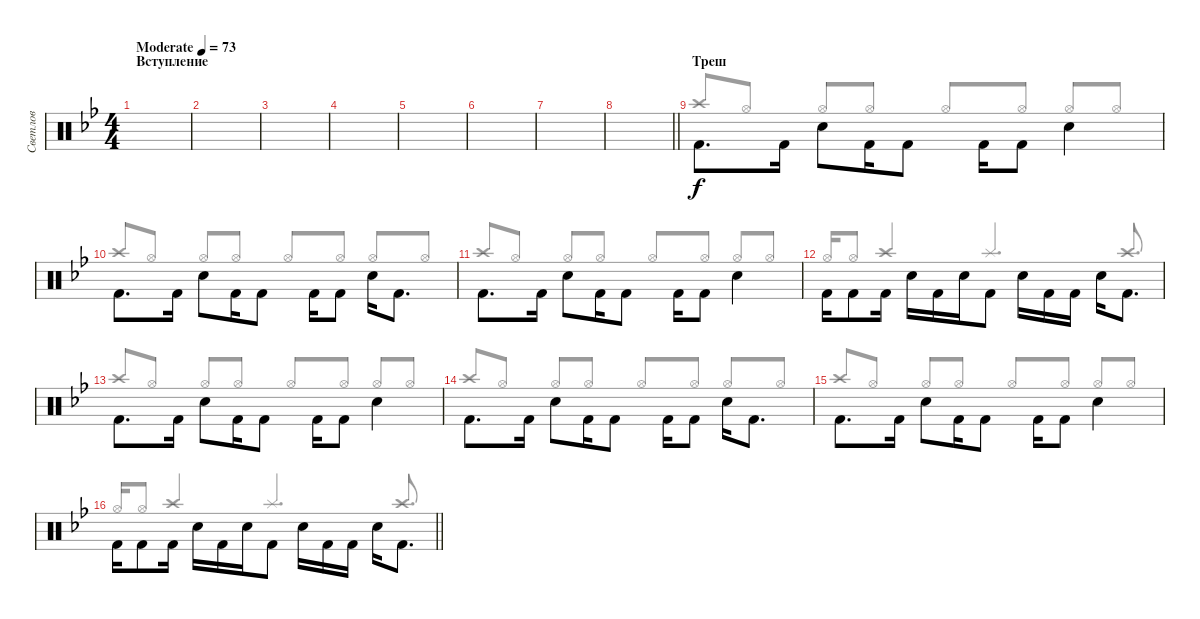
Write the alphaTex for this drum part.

\track ("Светлов" "Светлов") {instrument percussion}
\staff {score}
\articulation defaults
\voice
\ts (4 4)
\section ("" "Вступление")
\tempo (73 "Moderate")
\clef neutral
\ks gminor
|
|
|
|
|
|
|
\barLineRight lightlight
|
\section ("" "Треш")
"Kick (hit) 2".8{d beam Down} "Kick (hit) 2".16{beam Down} "Electric Snare (hit)".8{beam Down} "Kick (hit) 2".16{beam Down} "Kick (hit) 2".8{beam Down} "Kick (hit) 2".16{beam Down} "Kick (hit) 2".8{beam Down} "Electric Snare (hit)".4{beam Down} |
"Kick (hit) 2".8{d beam Down} "Kick (hit) 2".16{beam Down} "Electric Snare (hit)".8{beam Down} "Kick (hit) 2".16{beam Down} "Kick (hit) 2".8{beam Down} "Kick (hit) 2".16{beam Down} "Kick (hit) 2".8{beam Down} "Electric Snare (hit)".16{beam Down} "Kick (hit) 2".8{d beam Down} |
"Kick (hit) 2".8{d beam Down} "Kick (hit) 2".16{beam Down} "Electric Snare (hit)".8{beam Down} "Kick (hit) 2".16{beam Down} "Kick (hit) 2".8{beam Down} "Kick (hit) 2".16{beam Down} "Kick (hit) 2".8{beam Down} "Electric Snare (hit)".4{beam Down} |
"Kick (hit) 2".16{beam Down} "Kick (hit) 2".8{beam Down} "Kick (hit) 2".16{beam Down} "Electric Snare (hit)".16{beam Down} "Kick (hit) 2".16{beam Down} "Electric Snare (hit)".16{beam Down} "Kick (hit) 2".8{beam Down} "Electric Snare (hit)".16{beam Down} "Kick (hit) 2".16{beam Down} "Kick (hit) 2".16{beam Down} "Electric Snare (hit)".16{beam Down} "Kick (hit) 2".8{d beam Down} |
"Kick (hit) 2".8{d beam Down} "Kick (hit) 2".16{beam Down} "Electric Snare (hit)".8{beam Down} "Kick (hit) 2".16{beam Down} "Kick (hit) 2".8{beam Down} "Kick (hit) 2".16{beam Down} "Kick (hit) 2".8{beam Down} "Electric Snare (hit)".4{beam Down} |
"Kick (hit) 2".8{d beam Down} "Kick (hit) 2".16{beam Down} "Electric Snare (hit)".8{beam Down} "Kick (hit) 2".16{beam Down} "Kick (hit) 2".8{beam Down} "Kick (hit) 2".16{beam Down} "Kick (hit) 2".8{beam Down} "Electric Snare (hit)".16{beam Down} "Kick (hit) 2".8{d beam Down} |
"Kick (hit) 2".8{d beam Down} "Kick (hit) 2".16{beam Down} "Electric Snare (hit)".8{beam Down} "Kick (hit) 2".16{beam Down} "Kick (hit) 2".8{beam Down} "Kick (hit) 2".16{beam Down} "Kick (hit) 2".8{beam Down} "Electric Snare (hit)".4{beam Down} |
\barLineRight lightlight "Kick (hit) 2".16{beam Down} "Kick (hit) 2".8{beam Down} "Kick (hit) 2".16{beam Down} "Electric Snare (hit)".16{beam Down} "Kick (hit) 2".16{beam Down} "Electric Snare (hit)".16{beam Down} "Kick (hit) 2".8{beam Down} "Electric Snare (hit)".16{beam Down} "Kick (hit) 2".16{beam Down} "Kick (hit) 2".16{beam Down} "Electric Snare (hit)".16{beam Down} "Kick (hit) 2".8{d beam Down}
\voice
\clef neutral
\ottava regular
\simile none
\ks gminor
|
|
|
|
|
|
|
\barLineRight lightlight
|
"Crash high (hit)".8{beam Up} "Hi-Hat (open)".8{beam Up} "Hi-Hat (open)".8{beam Up} "Hi-Hat (open)".8{beam Up} "Hi-Hat (open)".8{beam Up} "Hi-Hat (open)".8{beam Up} "Hi-Hat (open)".8{beam Up} "Hi-Hat (open)".8{beam Up} |
"Crash high (hit)".8{beam Up} "Hi-Hat (open)".8{beam Up} "Hi-Hat (open)".8{beam Up} "Hi-Hat (open)".8{beam Up} "Hi-Hat (open)".8{beam Up} "Hi-Hat (open)".8{beam Up} "Hi-Hat (open)".8{beam Up} "Hi-Hat (open)".8{beam Up} |
"Crash high (hit)".8{beam Up} "Hi-Hat (open)".8{beam Up} "Hi-Hat (open)".8{beam Up} "Hi-Hat (open)".8{beam Up} "Hi-Hat (open)".8{beam Up} "Hi-Hat (open)".8{beam Up} "Hi-Hat (open)".8{beam Up} "Hi-Hat (open)".8{beam Up} |
"Hi-Hat (open)".16{beam Up} "Hi-Hat (open)".8{beam Up} "Crash high (hit)".4{beam Up} "Splash (hit)".4{d beam Up} "Crash high (hit)".8{d beam Up} |
"Crash high (hit)".8{beam Up} "Hi-Hat (open)".8{beam Up} "Hi-Hat (open)".8{beam Up} "Hi-Hat (open)".8{beam Up} "Hi-Hat (open)".8{beam Up} "Hi-Hat (open)".8{beam Up} "Hi-Hat (open)".8{beam Up} "Hi-Hat (open)".8{beam Up} |
"Crash high (hit)".8{beam Up} "Hi-Hat (open)".8{beam Up} "Hi-Hat (open)".8{beam Up} "Hi-Hat (open)".8{beam Up} "Hi-Hat (open)".8{beam Up} "Hi-Hat (open)".8{beam Up} "Hi-Hat (open)".8{beam Up} "Hi-Hat (open)".8{beam Up} |
"Crash high (hit)".8{beam Up} "Hi-Hat (open)".8{beam Up} "Hi-Hat (open)".8{beam Up} "Hi-Hat (open)".8{beam Up} "Hi-Hat (open)".8{beam Up} "Hi-Hat (open)".8{beam Up} "Hi-Hat (open)".8{beam Up} "Hi-Hat (open)".8{beam Up} |
\barLineRight lightlight "Hi-Hat (open)".16{beam Up} "Hi-Hat (open)".8{beam Up} "Crash high (hit)".4{beam Up} "Splash (hit)".4{d beam Up} "Crash high (hit)".8{d beam Up}
